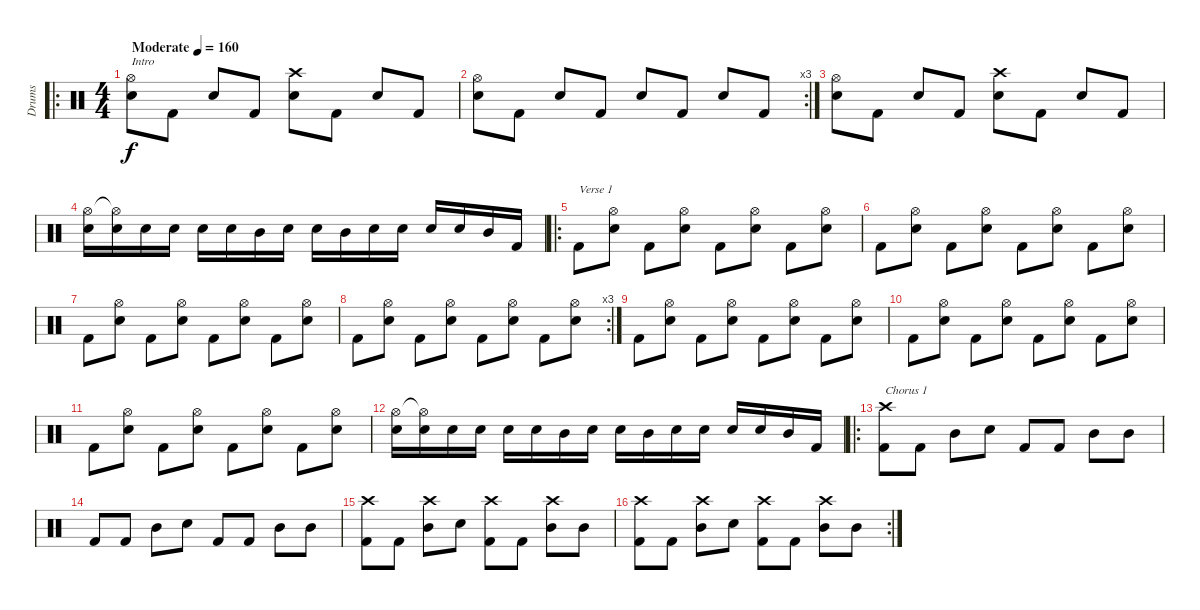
\track ("Drums" "Drums") {instrument percussion}
\staff {score}
\articulation defaults
\ro
\ts (4 4)
\tempo (160 "Moderate")
\clef neutral
\ks c
("Hi-Hat (open)" "Snare (hit) 2").8{txt "Intro" dy f} "Kick (hit) 2".8 "Snare (hit) 2".8 "Kick (hit) 2".8 ("Crash high (hit)" "Snare (hit) 2").8 "Kick (hit) 2".8 "Snare (hit) 2".8 "Kick (hit) 2".8 |
\rc 3
("Hi-Hat (open)" "Snare (hit) 2").8 "Kick (hit) 2".8 "Snare (hit) 2".8 "Kick (hit) 2".8 "Snare (hit) 2".8 "Kick (hit) 2".8 "Snare (hit) 2".8 "Kick (hit) 2".8 |
("Hi-Hat (open)" "Snare (hit) 2").8 "Kick (hit) 2".8 "Snare (hit) 2".8 "Kick (hit) 2".8 ("Crash high (hit)" "Snare (hit) 2").8 "Kick (hit) 2".8 "Snare (hit) 2".8 "Kick (hit) 2".8 |
("Hi-Hat (open)" "Snare (hit) 2").16 ("Hi-Hat (open)"{t} "Snare (hit) 2").16 "Snare (hit) 2".16 "Snare (hit) 2".16 "Snare (hit) 2".16 "Snare (hit) 2".16 "Mid Tom (hit)".16 "Snare (hit) 2".16 "Snare (hit) 2".16 "Mid Tom (hit)".16 "Snare (hit) 2".16 "Snare (hit) 2".16 "Snare (hit) 2".16 "Snare (hit) 2".16 "Mid Tom (hit)".16 "Kick (hit) 2".16 |
\ro "Kick (hit) 2".8{txt "Verse 1"}
("Snare (hit) 2" "Hi-Hat (open)").8 "Kick (hit) 2".8 ("Snare (hit) 2" "Hi-Hat (open)").8 "Kick (hit) 2".8 ("Snare (hit) 2" "Hi-Hat (open)").8 "Kick (hit) 2".8 ("Snare (hit) 2" "Hi-Hat (open)").8 |
"Kick (hit) 2".8 ("Snare (hit) 2" "Hi-Hat (open)").8 "Kick (hit) 2".8 ("Snare (hit) 2" "Hi-Hat (open)").8 "Kick (hit) 2".8 ("Snare (hit) 2" "Hi-Hat (open)").8 "Kick (hit) 2".8 ("Snare (hit) 2" "Hi-Hat (open)").8 |
"Kick (hit) 2".8 ("Snare (hit) 2" "Hi-Hat (open)").8 "Kick (hit) 2".8 ("Snare (hit) 2" "Hi-Hat (open)").8 "Kick (hit) 2".8 ("Snare (hit) 2" "Hi-Hat (open)").8 "Kick (hit) 2".8 ("Snare (hit) 2" "Hi-Hat (open)").8 |
\rc 3 "Kick (hit) 2".8
("Snare (hit) 2" "Hi-Hat (open)").8 "Kick (hit) 2".8 ("Snare (hit) 2" "Hi-Hat (open)").8 "Kick (hit) 2".8 ("Snare (hit) 2" "Hi-Hat (open)").8 "Kick (hit) 2".8 ("Snare (hit) 2" "Hi-Hat (open)").8 |
"Kick (hit) 2".8 ("Snare (hit) 2" "Hi-Hat (open)").8 "Kick (hit) 2".8 ("Snare (hit) 2" "Hi-Hat (open)").8 "Kick (hit) 2".8 ("Snare (hit) 2" "Hi-Hat (open)").8 "Kick (hit) 2".8 ("Snare (hit) 2" "Hi-Hat (open)").8 |
"Kick (hit) 2".8 ("Snare (hit) 2" "Hi-Hat (open)").8 "Kick (hit) 2".8 ("Snare (hit) 2" "Hi-Hat (open)").8 "Kick (hit) 2".8 ("Snare (hit) 2" "Hi-Hat (open)").8 "Kick (hit) 2".8 ("Snare (hit) 2" "Hi-Hat (open)").8 |
"Kick (hit) 2".8 ("Snare (hit) 2" "Hi-Hat (open)").8 "Kick (hit) 2".8 ("Snare (hit) 2" "Hi-Hat (open)").8 "Kick (hit) 2".8 ("Snare (hit) 2" "Hi-Hat (open)").8 "Kick (hit) 2".8 ("Snare (hit) 2" "Hi-Hat (open)").8 |
("Hi-Hat (open)" "Snare (hit) 2").16 ("Hi-Hat (open)"{t} "Snare (hit) 2").16 "Snare (hit) 2".16 "Snare (hit) 2".16 "Snare (hit) 2".16 "Snare (hit) 2".16 "Mid Tom (hit)".16 "Snare (hit) 2".16 "Snare (hit) 2".16 "Mid Tom (hit)".16 "Snare (hit) 2".16 "Snare (hit) 2".16 "Snare (hit) 2".16 "Snare (hit) 2".16 "Mid Tom (hit)".16 "Kick (hit) 2".16 |
\ro
("Crash high (hit)" "Kick (hit) 2").8{txt "Chorus 1"} "Kick (hit) 2".8 "Mid Tom (hit)".8 "Snare (hit) 2".8 "Kick (hit) 2".8 "Kick (hit) 2".8 "Mid Tom (hit)".8 "Mid Tom (hit)".8 |
"Kick (hit) 2".8 "Kick (hit) 2".8 "Mid Tom (hit)".8 "Snare (hit) 2".8 "Kick (hit) 2".8 "Kick (hit) 2".8 "Mid Tom (hit)".8 "Mid Tom (hit)".8 |
("Crash high (hit)" "Kick (hit) 2").8 "Kick (hit) 2".8 ("Crash high (hit)" "Mid Tom (hit)").8 "Snare (hit) 2".8 ("Crash high (hit)" "Kick (hit) 2").8 "Kick (hit) 2".8 ("Crash high (hit)" "Mid Tom (hit)").8 "Mid Tom (hit)".8 |
\rc 2
("Crash high (hit)" "Kick (hit) 2").8 "Kick (hit) 2".8 ("Crash high (hit)" "Mid Tom (hit)").8 "Snare (hit) 2".8 ("Crash high (hit)" "Kick (hit) 2").8 "Kick (hit) 2".8 ("Crash high (hit)" "Mid Tom (hit)").8 "Mid Tom (hit)".8
